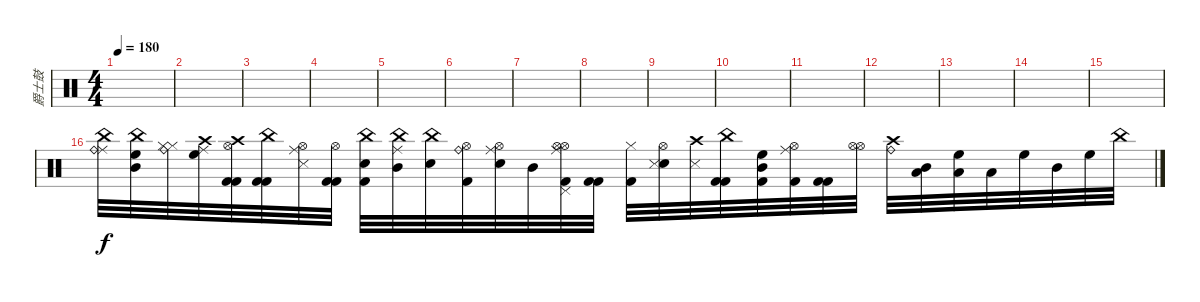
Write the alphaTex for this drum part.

\track ("爵士鼓" "爵士鼓") {instrument percussion}
\staff {score}
\articulation defaults
\ts (4 4)
\tempo 180
\clef neutral
\ks c
|
|
|
|
|
|
|
|
|
|
|
|
|
|
|
("Ride (middle)" "Ride (bell)" "China (hit)").32 ("China (hit)" "High Floor Tom (hit)" "Mid Tom (hit)").32 ("Hi-Hat (closed)" "Ride (bell)" "Hi-Hat (closed)").32 ("Ride (middle)" "High Floor Tom (hit)" "Crash high (hit)").32 ("Crash high (hit)" "Hi-Hat (open)" "Kick (hit) 2" "Kick (hit) 2").32 ("China (hit)" "Kick (hit) 2" "Kick (hit) 2").32 ("Hi-Hat (open)" "Snare (side stick) 3" "Ride (middle)").32 ("Kick (hit) 2" "Hi-Hat (open)" "Kick (hit) 2").32 ("China (hit)" "Kick (hit) 2" "Snare (hit) 2").32 ("Ride (middle)" "China (hit)" "Mid Tom (hit)").32 ("China (hit)" "Snare (hit) 2").32 ("Hi-Hat (open)" "Ride (bell)" "Kick (hit) 2").32 ("Ride (middle)" "Hi-Hat (open)" "Snare (hit) 2").32 "Mid Tom (hit)".32 ("Hi-Hat (open)" "Hi-Hat (open)" "Ride (middle)" "Pedal Hi-Hat (hit)" "Kick (hit) 2").32 ("Kick (hit) 2" "Kick (hit) 2").32 ("Hi-Hat (closed)" "Kick (hit) 2").32 ("Hi-Hat (open)" "Snare (hit) 2" "Snare (side stick) 3").32 ("Crash high (hit)" "Snare (side stick) 3").32 ("China (hit)" "Kick (hit) 2" "Kick (hit) 2").32 ("High Floor Tom (hit)" "Mid Tom (hit)" "Kick (hit) 2").32 ("Ride (middle)" "Hi-Hat (open)" "Kick (hit) 2").32 ("Kick (hit) 2" "Kick (hit) 2").32 ("Hi-Hat (open)" "Hi-Hat (open)").32 ("Ride (bell)" "Crash high (hit)").32 ("Mid Tom (hit)" "Low Tom (hit)").32 ("High Floor Tom (hit)" "Low Tom (hit)").32 "Low Tom (hit)".32 "High Floor Tom (hit)".32 "Mid Tom (hit)".32 "High Floor Tom (hit)".32 "China (hit)".32
